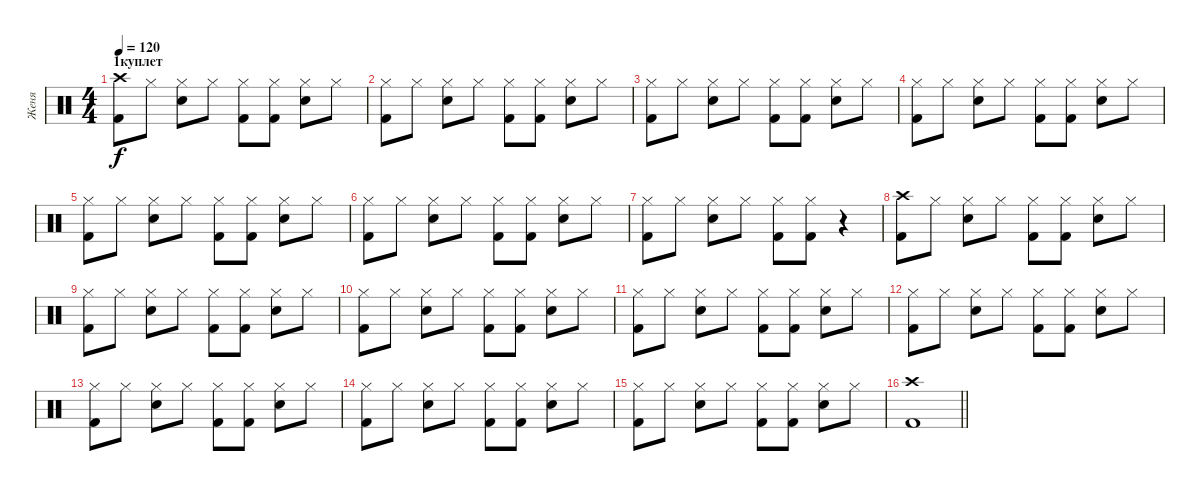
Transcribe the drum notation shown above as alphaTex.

\track ("Женя" "Женя") {instrument percussion}
\staff {score}
\articulation defaults
\ts (4 4)
\section ("" "1куплет")
\tempo 120
\clef neutral
\ks c
("Crash high (hit)" "Kick (hit) 2").8{dy f} "Hi-Hat (closed)".8 ("Hi-Hat (closed)" "Snare (hit) 2").8 "Hi-Hat (closed)".8 ("Hi-Hat (closed)" "Kick (hit) 2").8 ("Hi-Hat (closed)" "Kick (hit) 2").8 ("Hi-Hat (closed)" "Snare (hit) 2").8 "Hi-Hat (closed)".8 |
("Hi-Hat (closed)" "Kick (hit) 2").8 "Hi-Hat (closed)".8 ("Hi-Hat (closed)" "Snare (hit) 2").8 "Hi-Hat (closed)".8 ("Hi-Hat (closed)" "Kick (hit) 2").8 ("Hi-Hat (closed)" "Kick (hit) 2").8 ("Hi-Hat (closed)" "Snare (hit) 2").8 "Hi-Hat (closed)".8 |
("Hi-Hat (closed)" "Kick (hit) 2").8 "Hi-Hat (closed)".8 ("Hi-Hat (closed)" "Snare (hit) 2").8 "Hi-Hat (closed)".8 ("Hi-Hat (closed)" "Kick (hit) 2").8 ("Hi-Hat (closed)" "Kick (hit) 2").8 ("Hi-Hat (closed)" "Snare (hit) 2").8 "Hi-Hat (closed)".8 |
("Hi-Hat (closed)" "Kick (hit) 2").8 "Hi-Hat (closed)".8 ("Hi-Hat (closed)" "Snare (hit) 2").8 "Hi-Hat (closed)".8 ("Hi-Hat (closed)" "Kick (hit) 2").8 ("Hi-Hat (closed)" "Kick (hit) 2").8 ("Hi-Hat (closed)" "Snare (hit) 2").8 "Hi-Hat (closed)".8 |
("Hi-Hat (closed)" "Kick (hit) 2").8 "Hi-Hat (closed)".8 ("Hi-Hat (closed)" "Snare (hit) 2").8 "Hi-Hat (closed)".8 ("Hi-Hat (closed)" "Kick (hit) 2").8 ("Hi-Hat (closed)" "Kick (hit) 2").8 ("Hi-Hat (closed)" "Snare (hit) 2").8 "Hi-Hat (closed)".8 |
("Hi-Hat (closed)" "Kick (hit) 2").8 "Hi-Hat (closed)".8 ("Hi-Hat (closed)" "Snare (hit) 2").8 "Hi-Hat (closed)".8 ("Hi-Hat (closed)" "Kick (hit) 2").8 ("Hi-Hat (closed)" "Kick (hit) 2").8 ("Hi-Hat (closed)" "Snare (hit) 2").8 "Hi-Hat (closed)".8 |
("Hi-Hat (closed)" "Kick (hit) 2").8 "Hi-Hat (closed)".8 ("Hi-Hat (closed)" "Snare (hit) 2").8 "Hi-Hat (closed)".8 ("Hi-Hat (closed)" "Kick (hit) 2").8 ("Hi-Hat (closed)" "Kick (hit) 2").8 r.4 |
("Crash high (hit)" "Kick (hit) 2").8 "Hi-Hat (closed)".8 ("Hi-Hat (closed)" "Snare (hit) 2").8 "Hi-Hat (closed)".8 ("Hi-Hat (closed)" "Kick (hit) 2").8 ("Hi-Hat (closed)" "Kick (hit) 2").8 ("Hi-Hat (closed)" "Snare (hit) 2").8 "Hi-Hat (closed)".8 |
("Hi-Hat (closed)" "Kick (hit) 2").8 "Hi-Hat (closed)".8 ("Hi-Hat (closed)" "Snare (hit) 2").8 "Hi-Hat (closed)".8 ("Hi-Hat (closed)" "Kick (hit) 2").8 ("Hi-Hat (closed)" "Kick (hit) 2").8 ("Hi-Hat (closed)" "Snare (hit) 2").8 "Hi-Hat (closed)".8 |
("Hi-Hat (closed)" "Kick (hit) 2").8 "Hi-Hat (closed)".8 ("Hi-Hat (closed)" "Snare (hit) 2").8 "Hi-Hat (closed)".8 ("Hi-Hat (closed)" "Kick (hit) 2").8 ("Hi-Hat (closed)" "Kick (hit) 2").8 ("Hi-Hat (closed)" "Snare (hit) 2").8 "Hi-Hat (closed)".8 |
("Hi-Hat (closed)" "Kick (hit) 2").8 "Hi-Hat (closed)".8 ("Hi-Hat (closed)" "Snare (hit) 2").8 "Hi-Hat (closed)".8 ("Hi-Hat (closed)" "Kick (hit) 2").8 ("Hi-Hat (closed)" "Kick (hit) 2").8 ("Hi-Hat (closed)" "Snare (hit) 2").8 "Hi-Hat (closed)".8 |
("Hi-Hat (closed)" "Kick (hit) 2").8 "Hi-Hat (closed)".8 ("Hi-Hat (closed)" "Snare (hit) 2").8 "Hi-Hat (closed)".8 ("Hi-Hat (closed)" "Kick (hit) 2").8 ("Hi-Hat (closed)" "Kick (hit) 2").8 ("Hi-Hat (closed)" "Snare (hit) 2").8 "Hi-Hat (closed)".8 |
("Hi-Hat (closed)" "Kick (hit) 2").8 "Hi-Hat (closed)".8 ("Hi-Hat (closed)" "Snare (hit) 2").8 "Hi-Hat (closed)".8 ("Hi-Hat (closed)" "Kick (hit) 2").8 ("Hi-Hat (closed)" "Kick (hit) 2").8 ("Hi-Hat (closed)" "Snare (hit) 2").8 "Hi-Hat (closed)".8 |
("Hi-Hat (closed)" "Kick (hit) 2").8 "Hi-Hat (closed)".8 ("Hi-Hat (closed)" "Snare (hit) 2").8 "Hi-Hat (closed)".8 ("Hi-Hat (closed)" "Kick (hit) 2").8 ("Hi-Hat (closed)" "Kick (hit) 2").8 ("Hi-Hat (closed)" "Snare (hit) 2").8 "Hi-Hat (closed)".8 |
("Hi-Hat (closed)" "Kick (hit) 2").8 "Hi-Hat (closed)".8 ("Hi-Hat (closed)" "Snare (hit) 2").8 "Hi-Hat (closed)".8 ("Hi-Hat (closed)" "Kick (hit) 2").8 ("Hi-Hat (closed)" "Kick (hit) 2").8 ("Hi-Hat (closed)" "Snare (hit) 2").8 "Hi-Hat (closed)".8 |
\barLineRight lightlight
("Crash high (hit)" "Kick (hit) 2").1
